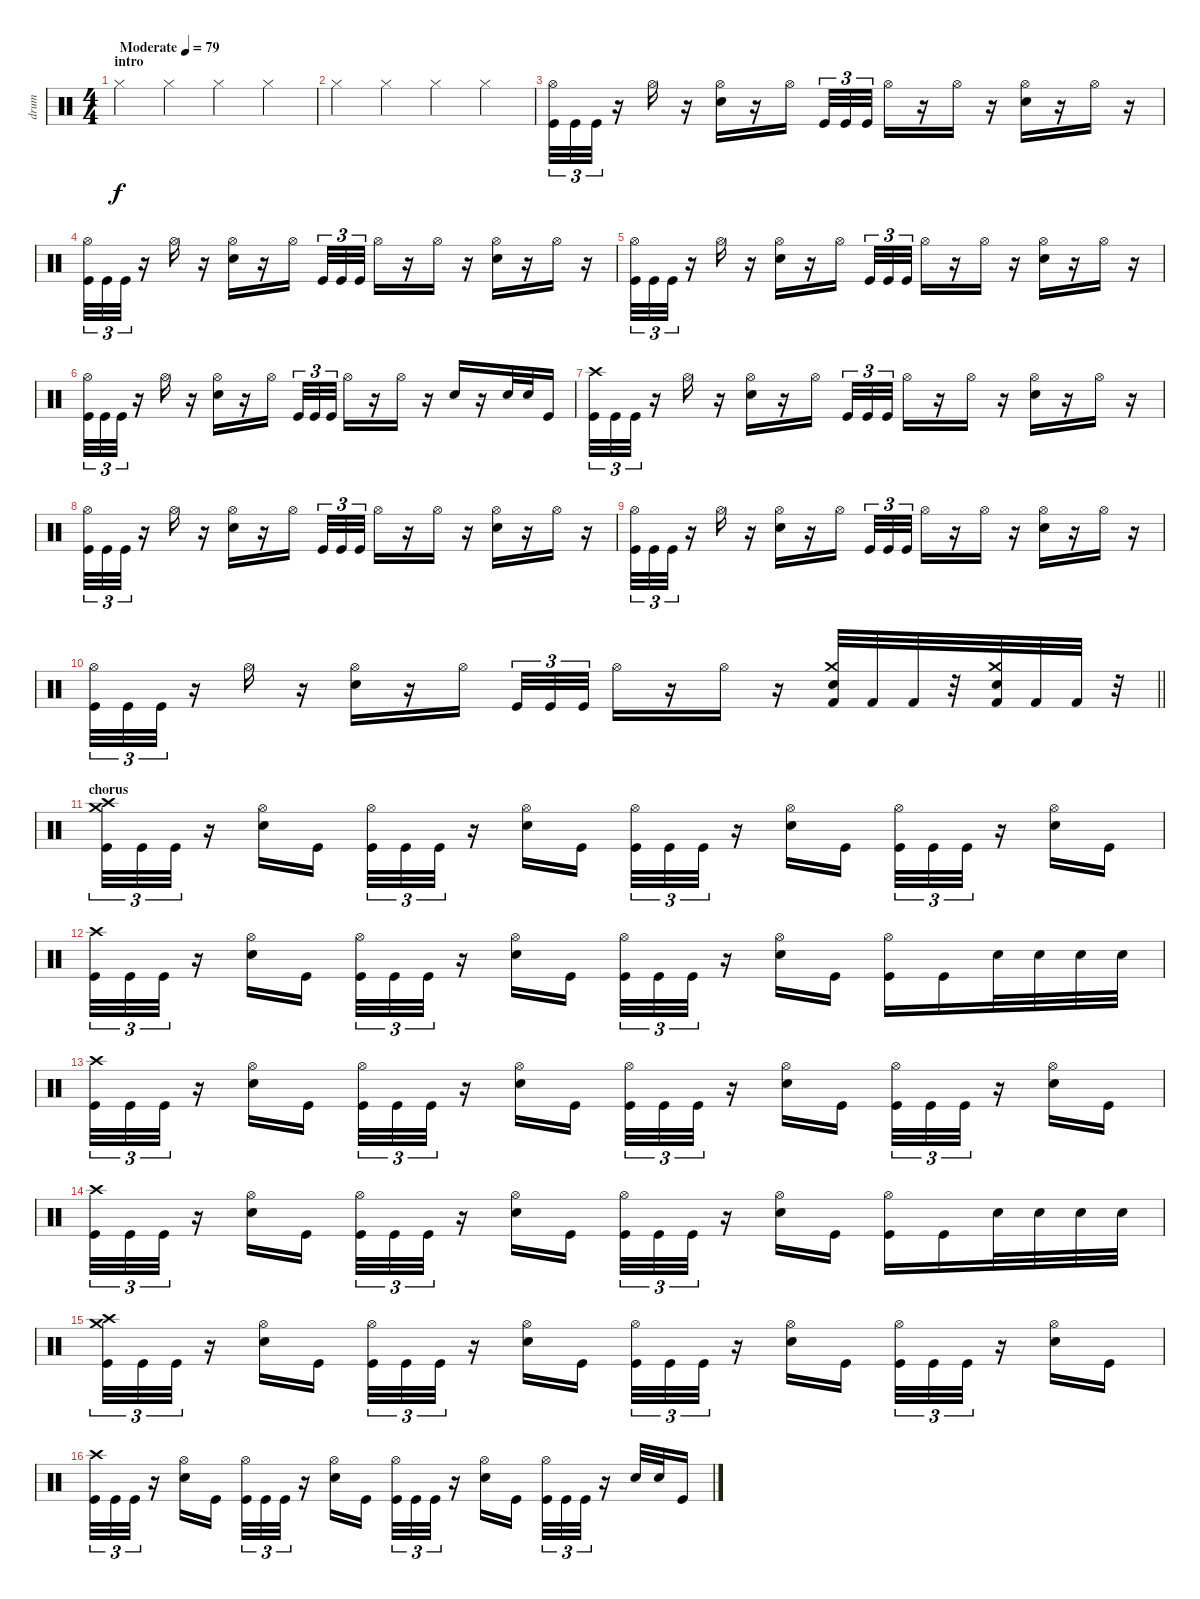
\track ("drum" "drum") {instrument percussion}
\staff {score}
\articulation defaults
\ts (4 4)
\section ("" "intro")
\tempo (79 "Moderate")
\clef neutral
\ks c "Hi-Hat (closed)".4{dy f} "Hi-Hat (closed)".4 "Hi-Hat (closed)".4 "Hi-Hat (closed)".4
|
"Hi-Hat (closed)".4 "Hi-Hat (closed)".4 "Hi-Hat (closed)".4 "Hi-Hat (closed)".4 |
("Hi-Hat (open)" "Kick (hit)").32{tu (3 2)} "Kick (hit)".32{tu (3 2)} "Kick (hit)".32{tu (3 2)} r.16 "Hi-Hat (open)".16 r.16 ("Hi-Hat (open)" "Snare (hit) 2").16 r.16 "Hi-Hat (open)".16{beam splitsecondary} "Kick (hit)".32{tu (3 2)} "Kick (hit)".32{tu (3 2)} "Kick (hit)".32{tu (3 2)} "Hi-Hat (open)".16 r.16 "Hi-Hat (open)".16 r.16 ("Hi-Hat (open)" "Snare (hit) 2").16 r.16 "Hi-Hat (open)".16 r.16 |
("Hi-Hat (open)" "Kick (hit)").32{tu (3 2)} "Kick (hit)".32{tu (3 2)} "Kick (hit)".32{tu (3 2)} r.16 "Hi-Hat (open)".16 r.16 ("Hi-Hat (open)" "Snare (hit) 2").16 r.16 "Hi-Hat (open)".16{beam splitsecondary} "Kick (hit)".32{tu (3 2)} "Kick (hit)".32{tu (3 2)} "Kick (hit)".32{tu (3 2)} "Hi-Hat (open)".16 r.16 "Hi-Hat (open)".16 r.16 ("Hi-Hat (open)" "Snare (hit) 2").16 r.16 "Hi-Hat (open)".16 r.16 |
("Hi-Hat (open)" "Kick (hit)").32{tu (3 2)} "Kick (hit)".32{tu (3 2)} "Kick (hit)".32{tu (3 2)} r.16 "Hi-Hat (open)".16 r.16 ("Hi-Hat (open)" "Snare (hit) 2").16 r.16 "Hi-Hat (open)".16{beam splitsecondary} "Kick (hit)".32{tu (3 2)} "Kick (hit)".32{tu (3 2)} "Kick (hit)".32{tu (3 2)} "Hi-Hat (open)".16 r.16 "Hi-Hat (open)".16 r.16 ("Hi-Hat (open)" "Snare (hit) 2").16 r.16 "Hi-Hat (open)".16 r.16 |
("Hi-Hat (open)" "Kick (hit)").32{tu (3 2)} "Kick (hit)".32{tu (3 2)} "Kick (hit)".32{tu (3 2)} r.16 "Hi-Hat (open)".16 r.16 ("Hi-Hat (open)" "Snare (hit) 2").16 r.16 "Hi-Hat (open)".16{beam splitsecondary} "Kick (hit)".32{tu (3 2)} "Kick (hit)".32{tu (3 2)} "Kick (hit)".32{tu (3 2)} "Hi-Hat (open)".16 r.16 "Hi-Hat (open)".16 r.16 "Snare (hit) 2".16 r.16 "Snare (hit) 2".32 "Snare (hit) 2".32 "Kick (hit)".16 |
("Crash high (hit)" "Kick (hit)").32{tu (3 2)} "Kick (hit)".32{tu (3 2)} "Kick (hit)".32{tu (3 2)} r.16 "Hi-Hat (open)".16 r.16 ("Hi-Hat (open)" "Snare (hit) 2").16 r.16 "Hi-Hat (open)".16{beam splitsecondary} "Kick (hit)".32{tu (3 2)} "Kick (hit)".32{tu (3 2)} "Kick (hit)".32{tu (3 2)} "Hi-Hat (open)".16 r.16 "Hi-Hat (open)".16 r.16 ("Hi-Hat (open)" "Snare (hit) 2").16 r.16 "Hi-Hat (open)".16 r.16 |
("Hi-Hat (open)" "Kick (hit)").32{tu (3 2)} "Kick (hit)".32{tu (3 2)} "Kick (hit)".32{tu (3 2)} r.16 "Hi-Hat (open)".16 r.16 ("Hi-Hat (open)" "Snare (hit) 2").16 r.16 "Hi-Hat (open)".16{beam splitsecondary} "Kick (hit)".32{tu (3 2)} "Kick (hit)".32{tu (3 2)} "Kick (hit)".32{tu (3 2)} "Hi-Hat (open)".16 r.16 "Hi-Hat (open)".16 r.16 ("Hi-Hat (open)" "Snare (hit) 2").16 r.16 "Hi-Hat (open)".16 r.16 |
("Hi-Hat (open)" "Kick (hit)").32{tu (3 2)} "Kick (hit)".32{tu (3 2)} "Kick (hit)".32{tu (3 2)} r.16 "Hi-Hat (open)".16 r.16 ("Hi-Hat (open)" "Snare (hit) 2").16 r.16 "Hi-Hat (open)".16{beam splitsecondary} "Kick (hit)".32{tu (3 2)} "Kick (hit)".32{tu (3 2)} "Kick (hit)".32{tu (3 2)} "Hi-Hat (open)".16 r.16 "Hi-Hat (open)".16 r.16 ("Hi-Hat (open)" "Snare (hit) 2").16 r.16 "Hi-Hat (open)".16 r.16 |
\barLineRight lightlight
("Hi-Hat (open)" "Kick (hit)").32{tu (3 2)} "Kick (hit)".32{tu (3 2)} "Kick (hit)".32{tu (3 2)} r.16 "Hi-Hat (open)".16 r.16 ("Hi-Hat (open)" "Snare (hit) 2").16 r.16 "Hi-Hat (open)".16{beam splitsecondary} "Kick (hit)".32{tu (3 2)} "Kick (hit)".32{tu (3 2)} "Kick (hit)".32{tu (3 2)} "Hi-Hat (open)".16 r.16 "Hi-Hat (open)".16 r.16 ("Crash medium (hit)" "Snare (hit) 2" "Kick (hit) 2").32 "Kick (hit) 2".32 "Kick (hit) 2".32 r.32 ("Crash medium (hit)" "Snare (hit) 2" "Kick (hit) 2").32 "Kick (hit) 2".32 "Kick (hit) 2".32 r.32 |
\section ("" "chorus")
("Crash medium (hit)" "Crash high (hit)" "Kick (hit)").32{tu (3 2)} "Kick (hit)".32{tu (3 2)} "Kick (hit)".32{tu (3 2)} r.16 ("Hi-Hat (open)" "Snare (hit) 2").16 "Kick (hit)".16 ("Hi-Hat (open)" "Kick (hit)").32{tu (3 2)} "Kick (hit)".32{tu (3 2)} "Kick (hit)".32{tu (3 2)} r.16 ("Hi-Hat (open)" "Snare (hit) 2").16 "Kick (hit)".16 ("Hi-Hat (open)" "Kick (hit)").32{tu (3 2)} "Kick (hit)".32{tu (3 2)} "Kick (hit)".32{tu (3 2)} r.16 ("Hi-Hat (open)" "Snare (hit) 2").16 "Kick (hit)".16 ("Hi-Hat (open)" "Kick (hit)").32{tu (3 2)} "Kick (hit)".32{tu (3 2)} "Kick (hit)".32{tu (3 2)} r.16 ("Hi-Hat (open)" "Snare (hit) 2").16 "Kick (hit)".16 |
("Crash high (hit)" "Kick (hit)").32{tu (3 2)} "Kick (hit)".32{tu (3 2)} "Kick (hit)".32{tu (3 2)} r.16 ("Hi-Hat (open)" "Snare (hit) 2").16 "Kick (hit)".16 ("Hi-Hat (open)" "Kick (hit)").32{tu (3 2)} "Kick (hit)".32{tu (3 2)} "Kick (hit)".32{tu (3 2)} r.16 ("Hi-Hat (open)" "Snare (hit) 2").16 "Kick (hit)".16 ("Hi-Hat (open)" "Kick (hit)").32{tu (3 2)} "Kick (hit)".32{tu (3 2)} "Kick (hit)".32{tu (3 2)} r.16 ("Hi-Hat (open)" "Snare (hit) 2").16 "Kick (hit)".16 ("Hi-Hat (open)" "Kick (hit)").16 "Kick (hit)".16 "Snare (hit) 2".32 "Snare (hit) 2".32 "Snare (hit) 2".32 "Snare (hit) 2".32 |
("Crash high (hit)" "Kick (hit)").32{tu (3 2)} "Kick (hit)".32{tu (3 2)} "Kick (hit)".32{tu (3 2)} r.16 ("Hi-Hat (open)" "Snare (hit) 2").16 "Kick (hit)".16 ("Hi-Hat (open)" "Kick (hit)").32{tu (3 2)} "Kick (hit)".32{tu (3 2)} "Kick (hit)".32{tu (3 2)} r.16 ("Hi-Hat (open)" "Snare (hit) 2").16 "Kick (hit)".16 ("Hi-Hat (open)" "Kick (hit)").32{tu (3 2)} "Kick (hit)".32{tu (3 2)} "Kick (hit)".32{tu (3 2)} r.16 ("Hi-Hat (open)" "Snare (hit) 2").16 "Kick (hit)".16 ("Hi-Hat (open)" "Kick (hit)").32{tu (3 2)} "Kick (hit)".32{tu (3 2)} "Kick (hit)".32{tu (3 2)} r.16 ("Hi-Hat (open)" "Snare (hit) 2").16 "Kick (hit)".16 |
("Crash high (hit)" "Kick (hit)").32{tu (3 2)} "Kick (hit)".32{tu (3 2)} "Kick (hit)".32{tu (3 2)} r.16 ("Hi-Hat (open)" "Snare (hit) 2").16 "Kick (hit)".16 ("Hi-Hat (open)" "Kick (hit)").32{tu (3 2)} "Kick (hit)".32{tu (3 2)} "Kick (hit)".32{tu (3 2)} r.16 ("Hi-Hat (open)" "Snare (hit) 2").16 "Kick (hit)".16 ("Hi-Hat (open)" "Kick (hit)").32{tu (3 2)} "Kick (hit)".32{tu (3 2)} "Kick (hit)".32{tu (3 2)} r.16 ("Hi-Hat (open)" "Snare (hit) 2").16 "Kick (hit)".16 ("Hi-Hat (open)" "Kick (hit)").16 "Kick (hit)".16 "Snare (hit) 2".32 "Snare (hit) 2".32 "Snare (hit) 2".32 "Snare (hit) 2".32 |
("Crash medium (hit)" "Crash high (hit)" "Kick (hit)").32{tu (3 2)} "Kick (hit)".32{tu (3 2)} "Kick (hit)".32{tu (3 2)} r.16 ("Hi-Hat (open)" "Snare (hit) 2").16 "Kick (hit)".16 ("Hi-Hat (open)" "Kick (hit)").32{tu (3 2)} "Kick (hit)".32{tu (3 2)} "Kick (hit)".32{tu (3 2)} r.16 ("Hi-Hat (open)" "Snare (hit) 2").16 "Kick (hit)".16 ("Hi-Hat (open)" "Kick (hit)").32{tu (3 2)} "Kick (hit)".32{tu (3 2)} "Kick (hit)".32{tu (3 2)} r.16 ("Hi-Hat (open)" "Snare (hit) 2").16 "Kick (hit)".16 ("Hi-Hat (open)" "Kick (hit)").32{tu (3 2)} "Kick (hit)".32{tu (3 2)} "Kick (hit)".32{tu (3 2)} r.16 ("Hi-Hat (open)" "Snare (hit) 2").16 "Kick (hit)".16 |
("Crash high (hit)" "Kick (hit)").32{tu (3 2)} "Kick (hit)".32{tu (3 2)} "Kick (hit)".32{tu (3 2)} r.16 ("Hi-Hat (open)" "Snare (hit) 2").16 "Kick (hit)".16 ("Hi-Hat (open)" "Kick (hit)").32{tu (3 2)} "Kick (hit)".32{tu (3 2)} "Kick (hit)".32{tu (3 2)} r.16 ("Hi-Hat (open)" "Snare (hit) 2").16 "Kick (hit)".16 ("Hi-Hat (open)" "Kick (hit)").32{tu (3 2)} "Kick (hit)".32{tu (3 2)} "Kick (hit)".32{tu (3 2)} r.16 ("Hi-Hat (open)" "Snare (hit) 2").16 "Kick (hit)".16 ("Hi-Hat (open)" "Kick (hit)").32{tu (3 2)} "Kick (hit)".32{tu (3 2)} "Kick (hit)".32{tu (3 2)} r.16 "Snare (hit) 2".32 "Snare (hit) 2".32 "Kick (hit)".16
